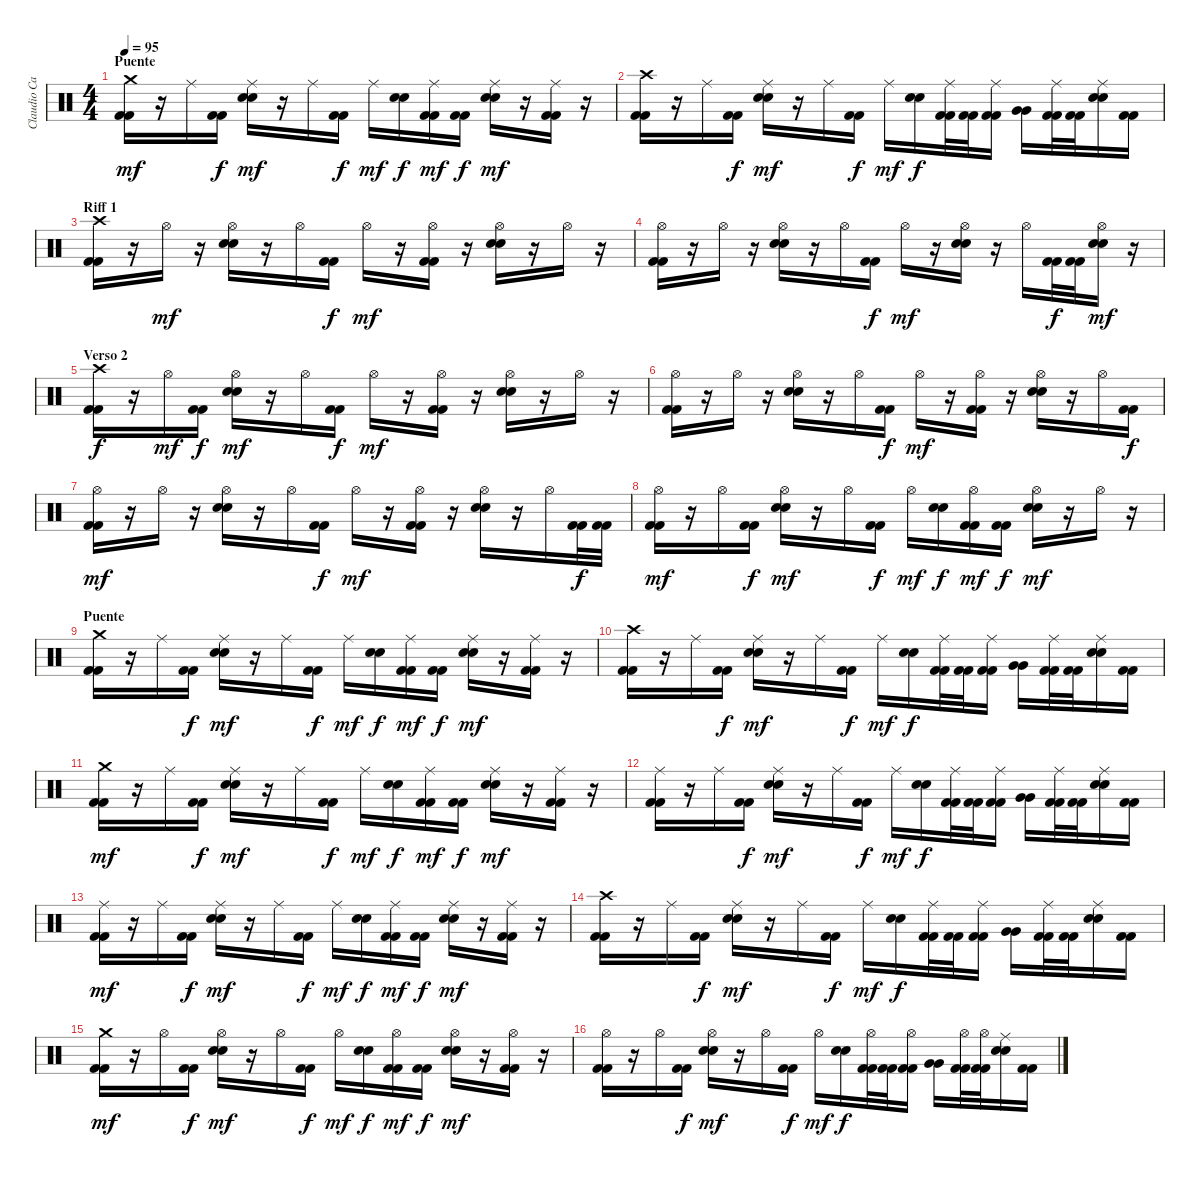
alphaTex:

\track ("Claudio Cardaci (bateria)" "Claudio Ca") {instrument percussion}
\staff {score}
\articulation defaults
\ts (4 4)
\section ("" "Puente")
\tempo 95
\clef neutral
\ks c
("Crash medium (hit)" "Kick (hit) 2" "Kick (hit) 2").16{dy mf} r.16 "Ride (middle)".16 ("Kick (hit) 2" "Kick (hit) 2").16{dy f} ("Ride (middle)" "Snare (hit) 2" "Snare (hit) 2").16{dy mf} r.16 "Ride (middle)".16 ("Kick (hit) 2" "Kick (hit) 2").16{dy f} "Ride (middle)".16{dy mf} ("Snare (hit) 2" "Snare (hit) 2").16{dy f} ("Ride (middle)" "Kick (hit) 2" "Kick (hit) 2").16{dy mf} ("Kick (hit) 2" "Kick (hit) 2").16{dy f} ("Ride (middle)" "Snare (hit) 2" "Snare (hit) 2").16{dy mf} r.16 ("Ride (middle)" "Kick (hit) 2" "Kick (hit) 2").16 r.16 |
("Crash high (hit)" "Kick (hit) 2" "Kick (hit) 2").16 r.16 "Ride (middle)".16 ("Kick (hit) 2" "Kick (hit) 2").16{dy f} ("Ride (middle)" "Snare (hit) 2" "Snare (hit) 2").16{dy mf} r.16 "Ride (middle)".16 ("Kick (hit) 2" "Kick (hit) 2").16{dy f} "Ride (middle)".16{dy mf} ("Snare (hit) 2" "Snare (hit) 2").16{dy f} ("Ride (middle)" "Kick (hit) 2" "Kick (hit) 2").32 ("Kick (hit) 2" "Kick (hit) 2").32 ("Ride (middle)" "Kick (hit) 2" "Kick (hit) 2").16 ("Very Low Tom (hit)" "Very Low Tom (hit)").16 ("Ride (middle)" "Kick (hit) 2" "Kick (hit) 2").32 ("Kick (hit) 2" "Kick (hit) 2").32 ("Ride (middle)" "Snare (hit) 2" "Snare (hit) 2").16 ("Kick (hit) 2" "Kick (hit) 2").16 |
\section ("" "Riff 1")
("Crash high (hit)" "Kick (hit) 2" "Kick (hit) 2").16 r.16 "Hi-Hat (open)".16{dy mf} r.16 ("Hi-Hat (open)" "Snare (hit) 2" "Snare (hit) 2").16 r.16 "Hi-Hat (open)".16 ("Kick (hit) 2" "Kick (hit) 2").16{dy f} "Hi-Hat (open)".16{dy mf} r.16 ("Hi-Hat (open)" "Kick (hit) 2" "Kick (hit) 2").16 r.16 ("Hi-Hat (open)" "Snare (hit) 2" "Snare (hit) 2").16 r.16 "Hi-Hat (open)".16 r.16 |
("Hi-Hat (open)" "Kick (hit) 2" "Kick (hit) 2").16 r.16 "Hi-Hat (open)".16 r.16 ("Hi-Hat (open)" "Snare (hit) 2" "Snare (hit) 2").16 r.16 "Hi-Hat (open)".16 ("Kick (hit) 2" "Kick (hit) 2").16{dy f} "Hi-Hat (open)".16{dy mf} r.16 ("Hi-Hat (open)" "Snare (hit) 2" "Snare (hit) 2").16 r.16 "Hi-Hat (open)".16 ("Kick (hit) 2" "Kick (hit) 2").32{dy f} ("Kick (hit) 2" "Kick (hit) 2").32 ("Hi-Hat (open)" "Snare (hit) 2" "Snare (hit) 2").16{dy mf} r.16 |
\section ("" "Verso 2")
("Crash high (hit)" "Kick (hit) 2" "Kick (hit) 2").16{dy f} r.16 "Hi-Hat (open)".16{dy mf} ("Kick (hit) 2" "Kick (hit) 2").16{dy f} ("Hi-Hat (open)" "Snare (hit) 2" "Snare (hit) 2").16{dy mf} r.16 "Hi-Hat (open)".16 ("Kick (hit) 2" "Kick (hit) 2").16{dy f} "Hi-Hat (open)".16{dy mf} r.16 ("Hi-Hat (open)" "Kick (hit) 2" "Kick (hit) 2").16 r.16 ("Hi-Hat (open)" "Snare (hit) 2" "Snare (hit) 2").16 r.16 "Hi-Hat (open)".16 r.16 |
("Hi-Hat (open)" "Kick (hit) 2" "Kick (hit) 2").16 r.16 "Hi-Hat (open)".16 r.16 ("Hi-Hat (open)" "Snare (hit) 2" "Snare (hit) 2").16 r.16 "Hi-Hat (open)".16 ("Kick (hit) 2" "Kick (hit) 2").16{dy f} "Hi-Hat (open)".16{dy mf} r.16 ("Hi-Hat (open)" "Kick (hit) 2" "Kick (hit) 2").16 r.16 ("Hi-Hat (open)" "Snare (hit) 2" "Snare (hit) 2").16 r.16 "Hi-Hat (open)".16 ("Kick (hit) 2" "Kick (hit) 2").16{dy f} |
("Hi-Hat (open)" "Kick (hit) 2" "Kick (hit) 2").16{dy mf} r.16 "Hi-Hat (open)".16 r.16 ("Hi-Hat (open)" "Snare (hit) 2" "Snare (hit) 2").16 r.16 "Hi-Hat (open)".16 ("Kick (hit) 2" "Kick (hit) 2").16{dy f} "Hi-Hat (open)".16{dy mf} r.16 ("Hi-Hat (open)" "Kick (hit) 2" "Kick (hit) 2").16 r.16 ("Hi-Hat (open)" "Snare (hit) 2" "Snare (hit) 2").16 r.16 "Hi-Hat (open)".16 ("Kick (hit) 2" "Kick (hit) 2").32{dy f} ("Kick (hit) 2" "Kick (hit) 2").32 |
("Hi-Hat (open)" "Kick (hit) 2" "Kick (hit) 2").16{dy mf} r.16 "Hi-Hat (open)".16 ("Kick (hit) 2" "Kick (hit) 2").16{dy f} ("Hi-Hat (open)" "Snare (hit) 2" "Snare (hit) 2").16{dy mf} r.16 "Hi-Hat (open)".16 ("Kick (hit) 2" "Kick (hit) 2").16{dy f} "Hi-Hat (open)".16{dy mf} ("Snare (hit) 2" "Snare (hit) 2").16{dy f} ("Hi-Hat (open)" "Kick (hit) 2" "Kick (hit) 2").16{dy mf} ("Kick (hit) 2" "Kick (hit) 2").16{dy f} ("Hi-Hat (open)" "Snare (hit) 2" "Snare (hit) 2").16{dy mf} r.16 "Hi-Hat (open)".16 r.16 |
\section ("" "Puente")
("Crash medium (hit)" "Kick (hit) 2" "Kick (hit) 2").16 r.16 "Ride (middle)".16 ("Kick (hit) 2" "Kick (hit) 2").16{dy f} ("Ride (middle)" "Snare (hit) 2" "Snare (hit) 2").16{dy mf} r.16 "Ride (middle)".16 ("Kick (hit) 2" "Kick (hit) 2").16{dy f} "Ride (middle)".16{dy mf} ("Snare (hit) 2" "Snare (hit) 2").16{dy f} ("Ride (middle)" "Kick (hit) 2" "Kick (hit) 2").16{dy mf} ("Kick (hit) 2" "Kick (hit) 2").16{dy f} ("Ride (middle)" "Snare (hit) 2" "Snare (hit) 2").16{dy mf} r.16 ("Ride (middle)" "Kick (hit) 2" "Kick (hit) 2").16 r.16 |
("Crash high (hit)" "Kick (hit) 2" "Kick (hit) 2").16 r.16 "Ride (middle)".16 ("Kick (hit) 2" "Kick (hit) 2").16{dy f} ("Ride (middle)" "Snare (hit) 2" "Snare (hit) 2").16{dy mf} r.16 "Ride (middle)".16 ("Kick (hit) 2" "Kick (hit) 2").16{dy f} "Ride (middle)".16{dy mf} ("Snare (hit) 2" "Snare (hit) 2").16{dy f} ("Ride (middle)" "Kick (hit) 2" "Kick (hit) 2").32 ("Kick (hit) 2" "Kick (hit) 2").32 ("Ride (middle)" "Kick (hit) 2" "Kick (hit) 2").16 ("Very Low Tom (hit)" "Very Low Tom (hit)").16 ("Ride (middle)" "Kick (hit) 2" "Kick (hit) 2").32 ("Kick (hit) 2" "Kick (hit) 2").32 ("Ride (middle)" "Snare (hit) 2" "Snare (hit) 2").16 ("Kick (hit) 2" "Kick (hit) 2").16 |
("Crash medium (hit)" "Kick (hit) 2" "Kick (hit) 2").16{dy mf} r.16 "Ride (middle)".16 ("Kick (hit) 2" "Kick (hit) 2").16{dy f} ("Ride (middle)" "Snare (hit) 2" "Snare (hit) 2").16{dy mf} r.16 "Ride (middle)".16 ("Kick (hit) 2" "Kick (hit) 2").16{dy f} "Ride (middle)".16{dy mf} ("Snare (hit) 2" "Snare (hit) 2").16{dy f} ("Ride (middle)" "Kick (hit) 2" "Kick (hit) 2").16{dy mf} ("Kick (hit) 2" "Kick (hit) 2").16{dy f} ("Ride (middle)" "Snare (hit) 2" "Snare (hit) 2").16{dy mf} r.16 ("Ride (middle)" "Kick (hit) 2" "Kick (hit) 2").16 r.16 |
("Ride (middle)" "Kick (hit) 2" "Kick (hit) 2").16 r.16 "Ride (middle)".16 ("Kick (hit) 2" "Kick (hit) 2").16{dy f} ("Ride (middle)" "Snare (hit) 2" "Snare (hit) 2").16{dy mf} r.16 "Ride (middle)".16 ("Kick (hit) 2" "Kick (hit) 2").16{dy f} "Ride (middle)".16{dy mf} ("Snare (hit) 2" "Snare (hit) 2").16{dy f} ("Ride (middle)" "Kick (hit) 2" "Kick (hit) 2").32 ("Kick (hit) 2" "Kick (hit) 2").32 ("Ride (middle)" "Kick (hit) 2" "Kick (hit) 2").16 ("Very Low Tom (hit)" "Very Low Tom (hit)").16 ("Ride (middle)" "Kick (hit) 2" "Kick (hit) 2").32 ("Kick (hit) 2" "Kick (hit) 2").32 ("Ride (middle)" "Snare (hit) 2" "Snare (hit) 2").16 ("Kick (hit) 2" "Kick (hit) 2").16 |
("Ride (middle)" "Kick (hit) 2" "Kick (hit) 2").16{dy mf} r.16 "Ride (middle)".16 ("Kick (hit) 2" "Kick (hit) 2").16{dy f} ("Ride (middle)" "Snare (hit) 2" "Snare (hit) 2").16{dy mf} r.16 "Ride (middle)".16 ("Kick (hit) 2" "Kick (hit) 2").16{dy f} "Ride (middle)".16{dy mf} ("Snare (hit) 2" "Snare (hit) 2").16{dy f} ("Ride (middle)" "Kick (hit) 2" "Kick (hit) 2").16{dy mf} ("Kick (hit) 2" "Kick (hit) 2").16{dy f} ("Ride (middle)" "Snare (hit) 2" "Snare (hit) 2").16{dy mf} r.16 ("Ride (middle)" "Kick (hit) 2" "Kick (hit) 2").16 r.16 |
("Crash high (hit)" "Kick (hit) 2" "Kick (hit) 2").16 r.16 "Ride (middle)".16 ("Kick (hit) 2" "Kick (hit) 2").16{dy f} ("Ride (middle)" "Snare (hit) 2" "Snare (hit) 2").16{dy mf} r.16 "Ride (middle)".16 ("Kick (hit) 2" "Kick (hit) 2").16{dy f} "Ride (middle)".16{dy mf} ("Snare (hit) 2" "Snare (hit) 2").16{dy f} ("Ride (middle)" "Kick (hit) 2" "Kick (hit) 2").32 ("Kick (hit) 2" "Kick (hit) 2").32 ("Ride (middle)" "Kick (hit) 2" "Kick (hit) 2").16 ("Very Low Tom (hit)" "Very Low Tom (hit)").16 ("Ride (middle)" "Kick (hit) 2" "Kick (hit) 2").32 ("Kick (hit) 2" "Kick (hit) 2").32 ("Ride (middle)" "Snare (hit) 2" "Snare (hit) 2").16 ("Kick (hit) 2" "Kick (hit) 2").16 |
("Crash medium (hit)" "Kick (hit) 2" "Kick (hit) 2").16{dy mf} r.16 "Hi-Hat (open)".16 ("Kick (hit) 2" "Kick (hit) 2").16{dy f} ("Hi-Hat (open)" "Snare (hit) 2" "Snare (hit) 2").16{dy mf} r.16 "Hi-Hat (open)".16 ("Kick (hit) 2" "Kick (hit) 2").16{dy f} "Hi-Hat (open)".16{dy mf} ("Snare (hit) 2" "Snare (hit) 2").16{dy f} ("Hi-Hat (open)" "Kick (hit) 2" "Kick (hit) 2").16{dy mf} ("Kick (hit) 2" "Kick (hit) 2").16{dy f} ("Hi-Hat (open)" "Snare (hit) 2" "Snare (hit) 2").16{dy mf} r.16 ("Hi-Hat (open)" "Kick (hit) 2" "Kick (hit) 2").16 r.16 |
("Hi-Hat (open)" "Kick (hit) 2" "Kick (hit) 2").16 r.16 "Hi-Hat (open)".16 ("Kick (hit) 2" "Kick (hit) 2").16{dy f} ("Hi-Hat (open)" "Snare (hit) 2" "Snare (hit) 2").16{dy mf} r.16 "Hi-Hat (open)".16 ("Kick (hit) 2" "Kick (hit) 2").16{dy f} "Hi-Hat (open)".16{dy mf} ("Snare (hit) 2" "Snare (hit) 2").16{dy f} ("Hi-Hat (open)" "Kick (hit) 2" "Kick (hit) 2").32 ("Kick (hit) 2" "Kick (hit) 2").32 ("Hi-Hat (open)" "Kick (hit) 2" "Kick (hit) 2").16 ("Very Low Tom (hit)" "Very Low Tom (hit)").16 ("Hi-Hat (open)" "Kick (hit) 2" "Kick (hit) 2").32 ("Hi-Hat (open)" "Kick (hit) 2" "Kick (hit) 2").32 ("Ride (middle)" "Snare (hit) 2" "Snare (hit) 2").16 ("Kick (hit) 2" "Kick (hit) 2").16
